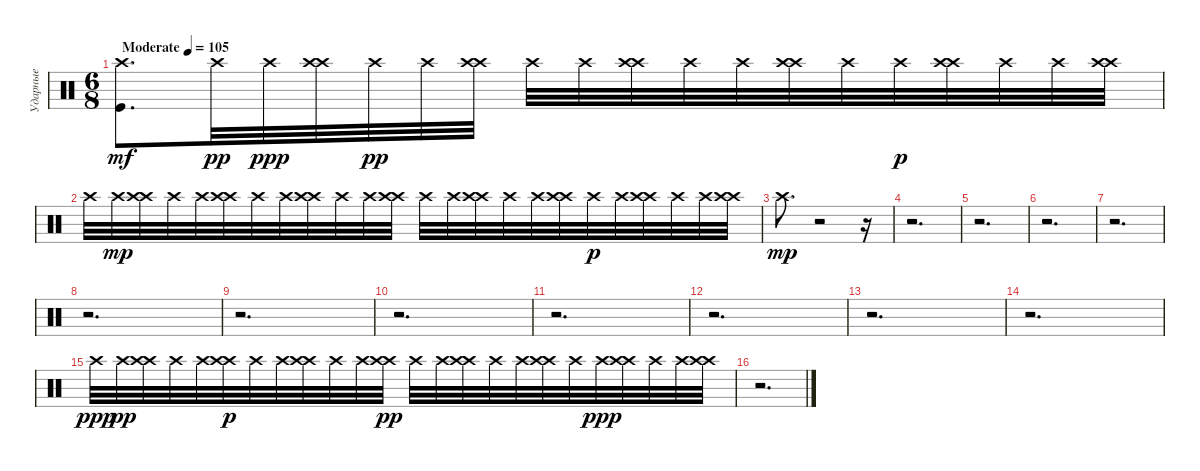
\track ("Ударные" "Ударные") {instrument percussion}
\staff {score}
\articulation defaults
\ts (6 8)
\tempo (105 "Moderate")
\clef neutral
\ks c
("Kick (hit)" "Crash high (hit)").8{d dy mf} "Crash high (hit)".32{dy pp} "Crash high (hit)".32{dy ppp} ("Crash high (hit)" "Crash high (hit)").32 "Crash high (hit)".32{dy pp} "Crash high (hit)".32 ("Crash high (hit)" "Crash high (hit)").32 "Crash high (hit)".32 "Crash high (hit)".32 ("Crash high (hit)" "Crash high (hit)").32 "Crash high (hit)".32 "Crash high (hit)".32 ("Crash high (hit)" "Crash high (hit)").32 "Crash high (hit)".32 "Crash high (hit)".32{dy p} ("Crash high (hit)" "Crash high (hit)").32 "Crash high (hit)".32 "Crash high (hit)".32 ("Crash high (hit)" "Crash high (hit)").32 |
"Crash high (hit)".32 "Crash high (hit)".32{dy mp} ("Crash high (hit)" "Crash high (hit)").32 "Crash high (hit)".32 "Crash high (hit)".32 ("Crash high (hit)" "Crash high (hit)").32 "Crash high (hit)".32 "Crash high (hit)".32 ("Crash high (hit)" "Crash high (hit)").32 "Crash high (hit)".32 "Crash high (hit)".32 ("Crash high (hit)" "Crash high (hit)").32 "Crash high (hit)".32 "Crash high (hit)".32 ("Crash high (hit)" "Crash high (hit)").32 "Crash high (hit)".32 "Crash high (hit)".32 ("Crash high (hit)" "Crash high (hit)").32 "Crash high (hit)".32{dy p} "Crash high (hit)".32 ("Crash high (hit)" "Crash high (hit)").32 "Crash high (hit)".32 "Crash high (hit)".32 ("Crash high (hit)" "Crash high (hit)").32 |
"Crash high (hit)".8{d dy mp} r.2 r.16 |
r.2{d} |
r.2{d} |
r.2{d} |
r.2{d} |
r.2{d} |
r.2{d} |
r.2{d} |
r.2{d} |
r.2{d} |
r.2{d} |
r.2{d} |
"Crash high (hit)".32{dy ppp} "Crash high (hit)".32{dy pp} ("Crash high (hit)" "Crash high (hit)").32 "Crash high (hit)".32 "Crash high (hit)".32 ("Crash high (hit)" "Crash high (hit)").32{dy p} "Crash high (hit)".32 "Crash high (hit)".32 ("Crash high (hit)" "Crash high (hit)").32 "Crash high (hit)".32 "Crash high (hit)".32 ("Crash high (hit)" "Crash high (hit)").32{dy pp} "Crash high (hit)".32 "Crash high (hit)".32 ("Crash high (hit)" "Crash high (hit)").32 "Crash high (hit)".32 "Crash high (hit)".32 ("Crash high (hit)" "Crash high (hit)").32 "Crash high (hit)".32 "Crash high (hit)".32{dy ppp} ("Crash high (hit)" "Crash high (hit)").32 "Crash high (hit)".32 "Crash high (hit)".32 ("Crash high (hit)" "Crash high (hit)").32 |
r.2{d}
